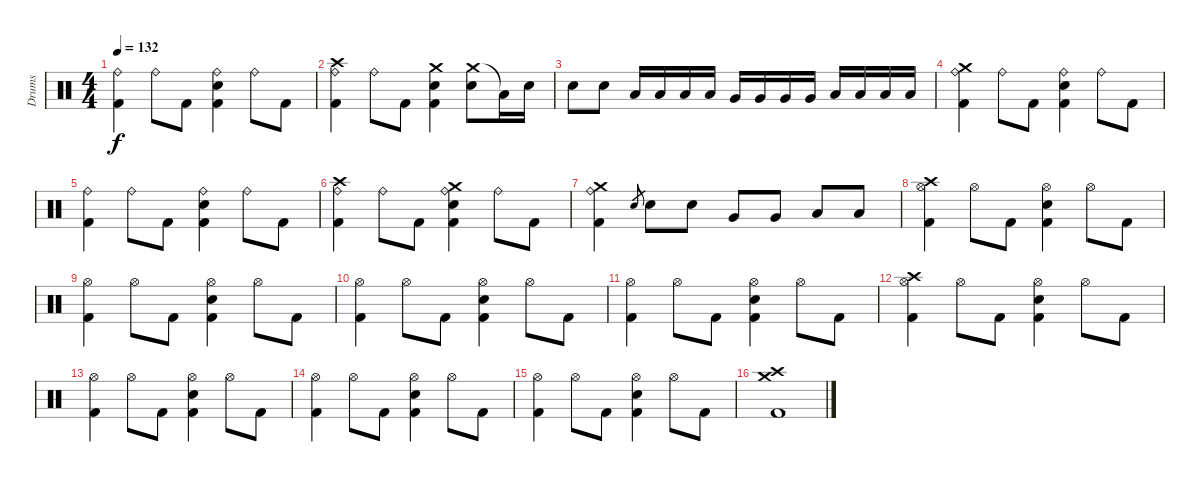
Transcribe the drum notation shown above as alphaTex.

\track ("Drums" "Drums") {instrument percussion}
\staff {score}
\articulation defaults
\ts (4 4)
\tempo 132
\clef neutral
\ks c
("Ride (bell)" "Kick (hit) 2").4{dy f} "Ride (bell)".8 "Kick (hit) 2".8 ("Ride (bell)" "Electric Snare (hit)" "Kick (hit) 2").4 "Ride (bell)".8 "Kick (hit) 2".8 |
("Crash high (hit)" "Ride (bell)" "Kick (hit) 2").4 "Ride (bell)".8 "Kick (hit) 2".8 ("Crash medium (hit)" "Electric Snare (hit)" "Kick (hit) 2").4 ("Crash medium (hit)" "Electric Snare (hit)").8 "Low Floor Tom (hit)"{t}.16 "Electric Snare (hit)".16 |
"Electric Snare (hit)".8 "Electric Snare (hit)".8 "Low Floor Tom (hit)".16 "Low Floor Tom (hit)".16 "Low Floor Tom (hit)".16 "Low Floor Tom (hit)".16 "Very Low Tom (hit)".16 "Very Low Tom (hit)".16 "Very Low Tom (hit)".16 "Very Low Tom (hit)".16 "Low Tom (hit)".16 "Low Tom (hit)".16 "Low Tom (hit)".16 "Low Tom (hit)".16 |
("Crash medium (hit)" "Ride (bell)" "Kick (hit) 2").4 "Ride (bell)".8 "Kick (hit) 2".8 ("Ride (bell)" "Electric Snare (hit)" "Kick (hit) 2").4 "Ride (bell)".8 "Kick (hit) 2".8 |
("Ride (bell)" "Kick (hit) 2").4 "Ride (bell)".8 "Kick (hit) 2".8 ("Ride (bell)" "Electric Snare (hit)" "Kick (hit) 2").4 "Ride (bell)".8 "Kick (hit) 2".8 |
("Crash high (hit)" "Ride (bell)" "Kick (hit) 2").4 "Ride (bell)".8 "Kick (hit) 2".8 ("Crash medium (hit)" "Ride (bell)" "Electric Snare (hit)" "Kick (hit) 2").4 "Ride (bell)".8 "Kick (hit) 2".8 |
("Crash medium (hit)" "Ride (bell)" "Kick (hit) 2").4 "Electric Snare (hit)".8{gr} "Electric Snare (hit)".8 "Electric Snare (hit)".8 "Very Low Tom (hit)".8 "Very Low Tom (hit)".8 "Low Tom (hit)".8 "Low Tom (hit)".8 |
("Crash high (hit)" "Hi-Hat (open)" "Kick (hit) 2").4 "Hi-Hat (open)".8 "Kick (hit) 2".8 ("Hi-Hat (open)" "Electric Snare (hit)" "Kick (hit) 2").4 "Hi-Hat (open)".8 "Kick (hit) 2".8 |
("Hi-Hat (open)" "Kick (hit) 2").4 "Hi-Hat (open)".8 "Kick (hit) 2".8 ("Hi-Hat (open)" "Electric Snare (hit)" "Kick (hit) 2").4 "Hi-Hat (open)".8 "Kick (hit) 2".8 |
("Hi-Hat (open)" "Kick (hit) 2").4 "Hi-Hat (open)".8 "Kick (hit) 2".8 ("Hi-Hat (open)" "Electric Snare (hit)" "Kick (hit) 2").4 "Hi-Hat (open)".8 "Kick (hit) 2".8 |
("Hi-Hat (open)" "Kick (hit) 2").4 "Hi-Hat (open)".8 "Kick (hit) 2".8 ("Hi-Hat (open)" "Electric Snare (hit)" "Kick (hit) 2").4 "Hi-Hat (open)".8 "Kick (hit) 2".8 |
("Crash high (hit)" "Hi-Hat (open)" "Kick (hit) 2").4 "Hi-Hat (open)".8 "Kick (hit) 2".8 ("Hi-Hat (open)" "Electric Snare (hit)" "Kick (hit) 2").4 "Hi-Hat (open)".8 "Kick (hit) 2".8 |
("Hi-Hat (open)" "Kick (hit) 2").4 "Hi-Hat (open)".8 "Kick (hit) 2".8 ("Hi-Hat (open)" "Electric Snare (hit)" "Kick (hit) 2").4 "Hi-Hat (open)".8 "Kick (hit) 2".8 |
("Hi-Hat (open)" "Kick (hit) 2").4 "Hi-Hat (open)".8 "Kick (hit) 2".8 ("Hi-Hat (open)" "Electric Snare (hit)" "Kick (hit) 2").4 "Hi-Hat (open)".8 "Kick (hit) 2".8 |
("Hi-Hat (open)" "Kick (hit) 2").4 "Hi-Hat (open)".8 "Kick (hit) 2".8 ("Hi-Hat (open)" "Electric Snare (hit)" "Kick (hit) 2").4 "Hi-Hat (open)".8 "Kick (hit) 2".8 |
("Crash medium (hit)" "Crash high (hit)" "Kick (hit) 2").1
